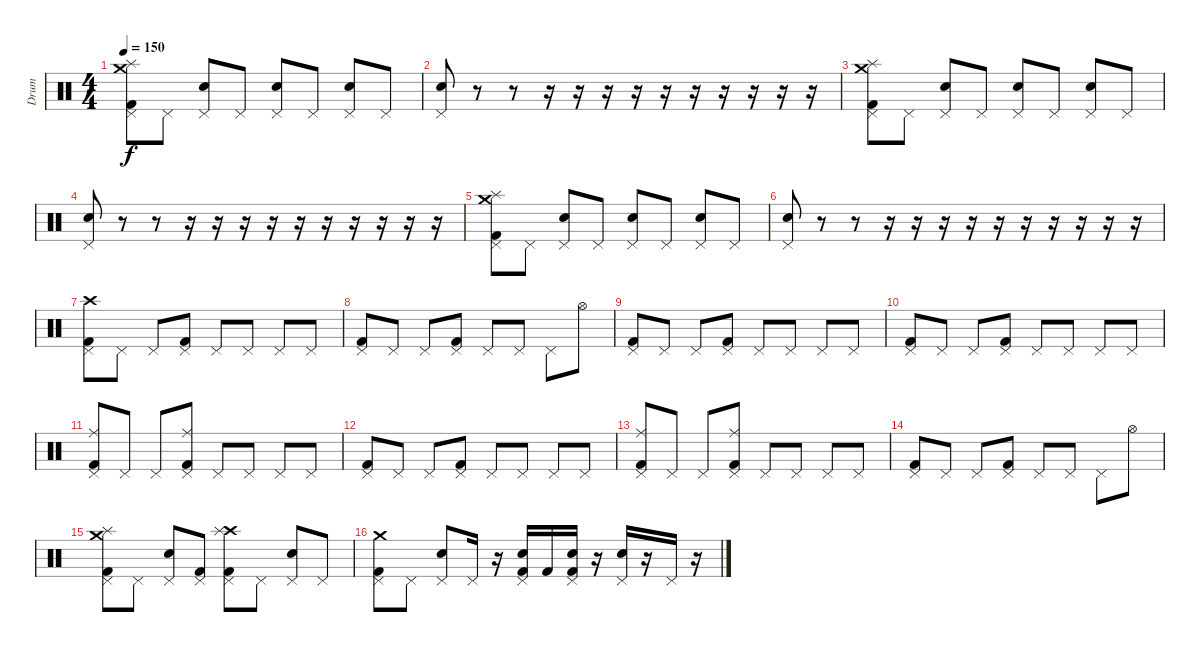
\track ("Drum" "Drum") {instrument percussion}
\staff {score}
\articulation defaults
\ts (4 4)
\tempo 150
\clef neutral
\ks c
("Crash medium (hit)" "Splash (hit)" "Kick (hit) 2" "Pedal Hi-Hat (hit)").8{dy f} "Pedal Hi-Hat (hit)".8 ("Electric Snare (hit)" "Pedal Hi-Hat (hit)").8 "Pedal Hi-Hat (hit)".8 ("Electric Snare (hit)" "Pedal Hi-Hat (hit)").8 "Pedal Hi-Hat (hit)".8 ("Electric Snare (hit)" "Pedal Hi-Hat (hit)").8 "Pedal Hi-Hat (hit)".8 |
("Electric Snare (hit)" "Pedal Hi-Hat (hit)").8 r.8 r.8 r.16 r.16 r.16 r.16 r.16 r.16 r.16 r.16 r.16 r.16 |
("Crash medium (hit)" "Splash (hit)" "Kick (hit) 2" "Pedal Hi-Hat (hit)").8 "Pedal Hi-Hat (hit)".8 ("Electric Snare (hit)" "Pedal Hi-Hat (hit)").8 "Pedal Hi-Hat (hit)".8 ("Electric Snare (hit)" "Pedal Hi-Hat (hit)").8 "Pedal Hi-Hat (hit)".8 ("Electric Snare (hit)" "Pedal Hi-Hat (hit)").8 "Pedal Hi-Hat (hit)".8 |
("Electric Snare (hit)" "Pedal Hi-Hat (hit)").8 r.8 r.8 r.16 r.16 r.16 r.16 r.16 r.16 r.16 r.16 r.16 r.16 |
("Crash medium (hit)" "Splash (hit)" "Kick (hit) 2" "Pedal Hi-Hat (hit)").8 "Pedal Hi-Hat (hit)".8 ("Electric Snare (hit)" "Pedal Hi-Hat (hit)").8 "Pedal Hi-Hat (hit)".8 ("Electric Snare (hit)" "Pedal Hi-Hat (hit)").8 "Pedal Hi-Hat (hit)".8 ("Electric Snare (hit)" "Pedal Hi-Hat (hit)").8 "Pedal Hi-Hat (hit)".8 |
("Electric Snare (hit)" "Pedal Hi-Hat (hit)").8 r.8 r.8 r.16 r.16 r.16 r.16 r.16 r.16 r.16 r.16 r.16 r.16 |
("Crash high (hit)" "Kick (hit) 2" "Pedal Hi-Hat (hit)").8 "Pedal Hi-Hat (hit)".8 "Pedal Hi-Hat (hit)".8 ("Kick (hit) 2" "Pedal Hi-Hat (hit)").8 "Pedal Hi-Hat (hit)".8 "Pedal Hi-Hat (hit)".8 "Pedal Hi-Hat (hit)".8 "Pedal Hi-Hat (hit)".8 |
("Kick (hit) 2" "Pedal Hi-Hat (hit)").8 "Pedal Hi-Hat (hit)".8 "Pedal Hi-Hat (hit)".8 ("Kick (hit) 2" "Pedal Hi-Hat (hit)").8 "Pedal Hi-Hat (hit)".8 "Pedal Hi-Hat (hit)".8 "Pedal Hi-Hat (hit)".8 "Hi-Hat (open)".8 |
("Kick (hit) 2" "Pedal Hi-Hat (hit)").8 "Pedal Hi-Hat (hit)".8 "Pedal Hi-Hat (hit)".8 ("Kick (hit) 2" "Pedal Hi-Hat (hit)").8 "Pedal Hi-Hat (hit)".8 "Pedal Hi-Hat (hit)".8 "Pedal Hi-Hat (hit)".8 "Pedal Hi-Hat (hit)".8 |
("Kick (hit) 2" "Pedal Hi-Hat (hit)").8 "Pedal Hi-Hat (hit)".8 "Pedal Hi-Hat (hit)".8 ("Kick (hit) 2" "Pedal Hi-Hat (hit)").8 "Pedal Hi-Hat (hit)".8 "Pedal Hi-Hat (hit)".8 "Pedal Hi-Hat (hit)".8 "Pedal Hi-Hat (hit)".8 |
("Ride (middle)" "Kick (hit) 2" "Pedal Hi-Hat (hit)").8 "Pedal Hi-Hat (hit)".8 "Pedal Hi-Hat (hit)".8 ("Ride (middle)" "Kick (hit) 2" "Pedal Hi-Hat (hit)").8 "Pedal Hi-Hat (hit)".8 "Pedal Hi-Hat (hit)".8 "Pedal Hi-Hat (hit)".8 "Pedal Hi-Hat (hit)".8 |
("Kick (hit) 2" "Pedal Hi-Hat (hit)").8 "Pedal Hi-Hat (hit)".8 "Pedal Hi-Hat (hit)".8 ("Kick (hit) 2" "Pedal Hi-Hat (hit)").8 "Pedal Hi-Hat (hit)".8 "Pedal Hi-Hat (hit)".8 "Pedal Hi-Hat (hit)".8 "Pedal Hi-Hat (hit)".8 |
("Ride (middle)" "Kick (hit) 2" "Pedal Hi-Hat (hit)").8 "Pedal Hi-Hat (hit)".8 "Pedal Hi-Hat (hit)".8 ("Ride (middle)" "Kick (hit) 2" "Pedal Hi-Hat (hit)").8 "Pedal Hi-Hat (hit)".8 "Pedal Hi-Hat (hit)".8 "Pedal Hi-Hat (hit)".8 "Pedal Hi-Hat (hit)".8 |
("Kick (hit) 2" "Pedal Hi-Hat (hit)").8 "Pedal Hi-Hat (hit)".8 "Pedal Hi-Hat (hit)".8 ("Kick (hit) 2" "Pedal Hi-Hat (hit)").8 "Pedal Hi-Hat (hit)".8 "Pedal Hi-Hat (hit)".8 "Pedal Hi-Hat (hit)".8 "Hi-Hat (open)".8 |
("Crash medium (hit)" "Splash (hit)" "Kick (hit) 2" "Pedal Hi-Hat (hit)").8 "Pedal Hi-Hat (hit)".8 ("Electric Snare (hit)" "Pedal Hi-Hat (hit)").8 ("Kick (hit) 2" "Pedal Hi-Hat (hit)").8 ("Crash high (hit)" "Splash (hit)" "Kick (hit) 2" "Pedal Hi-Hat (hit)").8 "Pedal Hi-Hat (hit)".8 ("Electric Snare (hit)" "Pedal Hi-Hat (hit)").8 "Pedal Hi-Hat (hit)".8 |
("Crash medium (hit)" "Kick (hit) 2" "Pedal Hi-Hat (hit)").8 "Pedal Hi-Hat (hit)".8 ("Electric Snare (hit)" "Pedal Hi-Hat (hit)").8 "Pedal Hi-Hat (hit)".16 r.16 ("Snare (hit) 2" "Kick (hit) 2" "Pedal Hi-Hat (hit)").16 "Kick (hit) 2".16 ("Snare (hit) 2" "Kick (hit) 2" "Pedal Hi-Hat (hit)").16 r.16 ("Electric Snare (hit)" "Pedal Hi-Hat (hit)").16 r.16 "Pedal Hi-Hat (hit)".16 r.16
